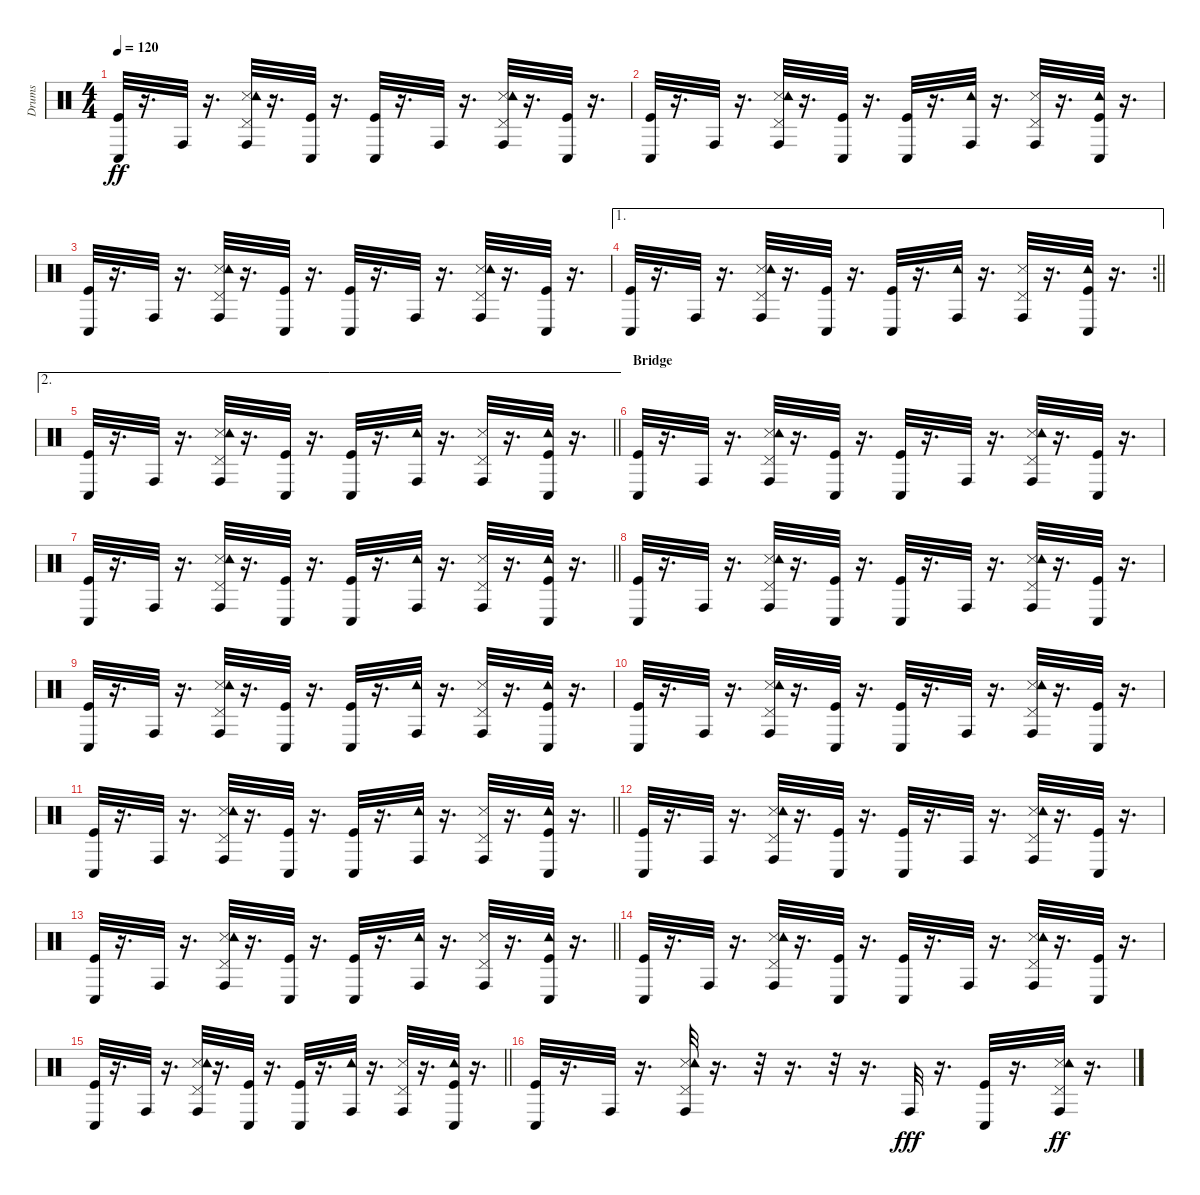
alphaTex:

\track ("Drums" "Drums") {instrument percussion}
\staff {score}
\articulation defaults
\ts (4 4)
\tempo 120
\clef neutral
\ks c
("Kick (hit)" "Conga low (hit)").32{dy ff} r.16{d} "Conga high (hit)".32 r.16{d} ("Snare (side stick) 3" "Pedal Hi-Hat (hit)" "Tambourine (hit)" "Conga high (hit)").32 r.16{d} ("Kick (hit)" "Conga low (hit)").32 r.16{d} ("Kick (hit)" "Conga low (hit)").32 r.16{d} "Conga high (hit)".32 r.16{d} ("Snare (side stick) 3" "Pedal Hi-Hat (hit)" "Tambourine (hit)" "Conga high (hit)").32 r.16{d} ("Kick (hit)" "Conga low (hit)").32 r.16{d} |
("Kick (hit)" "Conga low (hit)").32 r.16{d} "Conga high (hit)".32 r.16{d} ("Snare (side stick) 3" "Pedal Hi-Hat (hit)" "Tambourine (hit)" "Conga high (hit)").32 r.16{d} ("Kick (hit)" "Conga low (hit)").32 r.16{d} ("Kick (hit)" "Conga low (hit)").32 r.16{d} ("Tambourine (hit)" "Conga high (hit)").32 r.16{d} ("Snare (side stick) 3" "Pedal Hi-Hat (hit)" "Conga high (hit)").32 r.16{d} ("Kick (hit)" "Tambourine (hit)" "Conga low (hit)").32 r.16{d} |
("Kick (hit)" "Conga low (hit)").32 r.16{d} "Conga high (hit)".32 r.16{d} ("Snare (side stick) 3" "Pedal Hi-Hat (hit)" "Tambourine (hit)" "Conga high (hit)").32 r.16{d} ("Kick (hit)" "Conga low (hit)").32 r.16{d} ("Kick (hit)" "Conga low (hit)").32 r.16{d} "Conga high (hit)".32 r.16{d} ("Snare (side stick) 3" "Pedal Hi-Hat (hit)" "Tambourine (hit)" "Conga high (hit)").32 r.16{d} ("Kick (hit)" "Conga low (hit)").32 r.16{d} |
\ae 1
\rc 2
\barLineRight lightlight
("Kick (hit)" "Conga low (hit)").32 r.16{d} "Conga high (hit)".32 r.16{d} ("Snare (side stick) 3" "Pedal Hi-Hat (hit)" "Tambourine (hit)" "Conga high (hit)").32 r.16{d} ("Kick (hit)" "Conga low (hit)").32 r.16{d} ("Kick (hit)" "Conga low (hit)").32 r.16{d} ("Tambourine (hit)" "Conga high (hit)").32 r.16{d} ("Snare (side stick) 3" "Pedal Hi-Hat (hit)" "Conga high (hit)").32 r.16{d} ("Kick (hit)" "Tambourine (hit)" "Conga low (hit)").32 r.16{d} |
\ae 2
\barLineRight lightlight
("Kick (hit)" "Conga low (hit)").32 r.16{d} "Conga high (hit)".32 r.16{d} ("Snare (side stick) 3" "Pedal Hi-Hat (hit)" "Tambourine (hit)" "Conga high (hit)").32 r.16{d} ("Kick (hit)" "Conga low (hit)").32 r.16{d} ("Kick (hit)" "Conga low (hit)").32 r.16{d} ("Tambourine (hit)" "Conga high (hit)").32 r.16{d} ("Snare (side stick) 3" "Pedal Hi-Hat (hit)" "Conga high (hit)").32 r.16{d} ("Kick (hit)" "Tambourine (hit)" "Conga low (hit)").32 r.16{d} |
\section ("" "Bridge")
("Kick (hit)" "Conga low (hit)").32 r.16{d} "Conga high (hit)".32 r.16{d} ("Snare (side stick) 3" "Pedal Hi-Hat (hit)" "Tambourine (hit)" "Conga high (hit)").32 r.16{d} ("Kick (hit)" "Conga low (hit)").32 r.16{d} ("Kick (hit)" "Conga low (hit)").32 r.16{d} "Conga high (hit)".32 r.16{d} ("Snare (side stick) 3" "Pedal Hi-Hat (hit)" "Tambourine (hit)" "Conga high (hit)").32 r.16{d} ("Kick (hit)" "Conga low (hit)").32 r.16{d} |
\barLineRight lightlight
("Kick (hit)" "Conga low (hit)").32 r.16{d} "Conga high (hit)".32 r.16{d} ("Snare (side stick) 3" "Pedal Hi-Hat (hit)" "Tambourine (hit)" "Conga high (hit)").32 r.16{d} ("Kick (hit)" "Conga low (hit)").32 r.16{d} ("Kick (hit)" "Conga low (hit)").32 r.16{d} ("Tambourine (hit)" "Conga high (hit)").32 r.16{d} ("Snare (side stick) 3" "Pedal Hi-Hat (hit)" "Conga high (hit)").32 r.16{d} ("Kick (hit)" "Tambourine (hit)" "Conga low (hit)").32 r.16{d} |
("Kick (hit)" "Conga low (hit)").32 r.16{d} "Conga high (hit)".32 r.16{d} ("Snare (side stick) 3" "Pedal Hi-Hat (hit)" "Tambourine (hit)" "Conga high (hit)").32 r.16{d} ("Kick (hit)" "Conga low (hit)").32 r.16{d} ("Kick (hit)" "Conga low (hit)").32 r.16{d} "Conga high (hit)".32 r.16{d} ("Snare (side stick) 3" "Pedal Hi-Hat (hit)" "Tambourine (hit)" "Conga high (hit)").32 r.16{d} ("Kick (hit)" "Conga low (hit)").32 r.16{d} |
("Kick (hit)" "Conga low (hit)").32 r.16{d} "Conga high (hit)".32 r.16{d} ("Snare (side stick) 3" "Pedal Hi-Hat (hit)" "Tambourine (hit)" "Conga high (hit)").32 r.16{d} ("Kick (hit)" "Conga low (hit)").32 r.16{d} ("Kick (hit)" "Conga low (hit)").32 r.16{d} ("Tambourine (hit)" "Conga high (hit)").32 r.16{d} ("Snare (side stick) 3" "Pedal Hi-Hat (hit)" "Conga high (hit)").32 r.16{d} ("Kick (hit)" "Tambourine (hit)" "Conga low (hit)").32 r.16{d} |
("Kick (hit)" "Conga low (hit)").32 r.16{d} "Conga high (hit)".32 r.16{d} ("Snare (side stick) 3" "Pedal Hi-Hat (hit)" "Tambourine (hit)" "Conga high (hit)").32 r.16{d} ("Kick (hit)" "Conga low (hit)").32 r.16{d} ("Kick (hit)" "Conga low (hit)").32 r.16{d} "Conga high (hit)".32 r.16{d} ("Snare (side stick) 3" "Pedal Hi-Hat (hit)" "Tambourine (hit)" "Conga high (hit)").32 r.16{d} ("Kick (hit)" "Conga low (hit)").32 r.16{d} |
\barLineRight lightlight
("Kick (hit)" "Conga low (hit)").32 r.16{d} "Conga high (hit)".32 r.16{d} ("Snare (side stick) 3" "Pedal Hi-Hat (hit)" "Tambourine (hit)" "Conga high (hit)").32 r.16{d} ("Kick (hit)" "Conga low (hit)").32 r.16{d} ("Kick (hit)" "Conga low (hit)").32 r.16{d} ("Tambourine (hit)" "Conga high (hit)").32 r.16{d} ("Snare (side stick) 3" "Pedal Hi-Hat (hit)" "Conga high (hit)").32 r.16{d} ("Kick (hit)" "Tambourine (hit)" "Conga low (hit)").32 r.16{d} |
("Kick (hit)" "Conga low (hit)").32 r.16{d} "Conga high (hit)".32 r.16{d} ("Snare (side stick) 3" "Pedal Hi-Hat (hit)" "Tambourine (hit)" "Conga high (hit)").32 r.16{d} ("Kick (hit)" "Conga low (hit)").32 r.16{d} ("Kick (hit)" "Conga low (hit)").32 r.16{d} "Conga high (hit)".32 r.16{d} ("Snare (side stick) 3" "Pedal Hi-Hat (hit)" "Tambourine (hit)" "Conga high (hit)").32 r.16{d} ("Kick (hit)" "Conga low (hit)").32 r.16{d} |
\barLineRight lightlight
("Kick (hit)" "Conga low (hit)").32 r.16{d} "Conga high (hit)".32 r.16{d} ("Snare (side stick) 3" "Pedal Hi-Hat (hit)" "Tambourine (hit)" "Conga high (hit)").32 r.16{d} ("Kick (hit)" "Conga low (hit)").32 r.16{d} ("Kick (hit)" "Conga low (hit)").32 r.16{d} ("Tambourine (hit)" "Conga high (hit)").32 r.16{d} ("Snare (side stick) 3" "Pedal Hi-Hat (hit)" "Conga high (hit)").32 r.16{d} ("Kick (hit)" "Tambourine (hit)" "Conga low (hit)").32 r.16{d} |
("Kick (hit)" "Conga low (hit)").32 r.16{d} "Conga high (hit)".32 r.16{d} ("Snare (side stick) 3" "Pedal Hi-Hat (hit)" "Tambourine (hit)" "Conga high (hit)").32 r.16{d} ("Kick (hit)" "Conga low (hit)").32 r.16{d} ("Kick (hit)" "Conga low (hit)").32 r.16{d} "Conga high (hit)".32 r.16{d} ("Snare (side stick) 3" "Pedal Hi-Hat (hit)" "Tambourine (hit)" "Conga high (hit)").32 r.16{d} ("Kick (hit)" "Conga low (hit)").32 r.16{d} |
\barLineRight lightlight
("Kick (hit)" "Conga low (hit)").32 r.16{d} "Conga high (hit)".32 r.16{d} ("Snare (side stick) 3" "Pedal Hi-Hat (hit)" "Tambourine (hit)" "Conga high (hit)").32 r.16{d} ("Kick (hit)" "Conga low (hit)").32 r.16{d} ("Kick (hit)" "Conga low (hit)").32 r.16{d} ("Tambourine (hit)" "Conga high (hit)").32 r.16{d} ("Snare (side stick) 3" "Pedal Hi-Hat (hit)" "Conga high (hit)").32 r.16{d} ("Kick (hit)" "Tambourine (hit)" "Conga low (hit)").32 r.16{d} |
("Kick (hit)" "Conga low (hit)").32 r.16{d} "Conga high (hit)".32 r.16{d} ("Snare (side stick) 3" "Pedal Hi-Hat (hit)" "Tambourine (hit)" "Conga high (hit)").32 r.16{d} r.32 r.16{d} r.32 r.16{d} "Conga high (hit)".32{dy fff} r.16{d} ("Kick (hit)" "Conga low (hit)").32 r.16{d} ("Snare (side stick) 3" "Pedal Hi-Hat (hit)" "Tambourine (hit)" "Conga high (hit)").32{dy ff} r.16{d}
